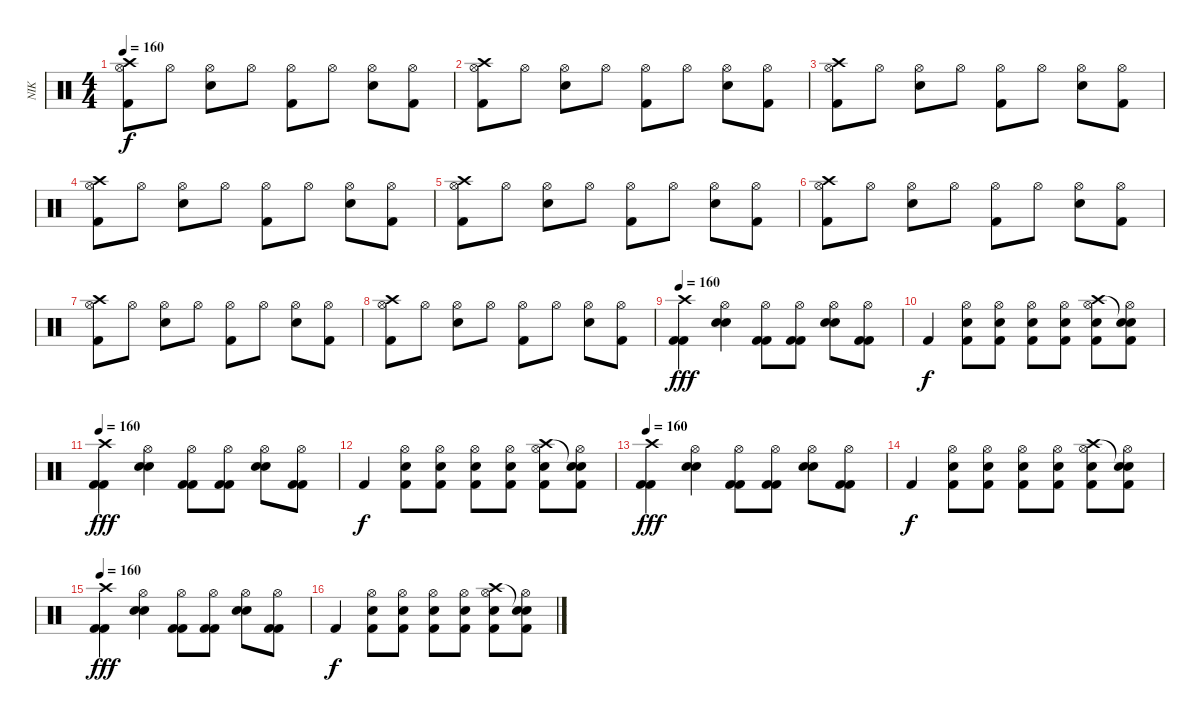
\track ("NIK" "NIK") {instrument percussion}
\staff {score}
\articulation defaults
\ts (4 4)
\tempo 160
\clef neutral
\ks c
("Crash high (hit)" "Hi-Hat (open)" "Kick (hit) 2").8{dy f} "Hi-Hat (open)".8 ("Hi-Hat (open)" "Electric Snare (hit)").8 "Hi-Hat (open)".8 ("Hi-Hat (open)" "Kick (hit) 2").8 "Hi-Hat (open)".8 ("Hi-Hat (open)" "Electric Snare (hit)").8 ("Hi-Hat (open)" "Kick (hit) 2").8 |
("Crash high (hit)" "Hi-Hat (open)" "Kick (hit) 2").8 "Hi-Hat (open)".8 ("Hi-Hat (open)" "Electric Snare (hit)").8 "Hi-Hat (open)".8 ("Hi-Hat (open)" "Kick (hit) 2").8 "Hi-Hat (open)".8 ("Hi-Hat (open)" "Electric Snare (hit)").8 ("Hi-Hat (open)" "Kick (hit) 2").8 |
("Crash high (hit)" "Hi-Hat (open)" "Kick (hit) 2").8 "Hi-Hat (open)".8 ("Hi-Hat (open)" "Electric Snare (hit)").8 "Hi-Hat (open)".8 ("Hi-Hat (open)" "Kick (hit) 2").8 "Hi-Hat (open)".8 ("Hi-Hat (open)" "Electric Snare (hit)").8 ("Hi-Hat (open)" "Kick (hit) 2").8 |
("Crash high (hit)" "Hi-Hat (open)" "Kick (hit) 2").8 "Hi-Hat (open)".8 ("Hi-Hat (open)" "Electric Snare (hit)").8 "Hi-Hat (open)".8 ("Hi-Hat (open)" "Kick (hit) 2").8 "Hi-Hat (open)".8 ("Hi-Hat (open)" "Electric Snare (hit)").8 ("Hi-Hat (open)" "Kick (hit) 2").8 |
("Crash high (hit)" "Hi-Hat (open)" "Kick (hit) 2").8 "Hi-Hat (open)".8 ("Hi-Hat (open)" "Electric Snare (hit)").8 "Hi-Hat (open)".8 ("Hi-Hat (open)" "Kick (hit) 2").8 "Hi-Hat (open)".8 ("Hi-Hat (open)" "Electric Snare (hit)").8 ("Hi-Hat (open)" "Kick (hit) 2").8 |
("Crash high (hit)" "Hi-Hat (open)" "Kick (hit) 2").8 "Hi-Hat (open)".8 ("Hi-Hat (open)" "Electric Snare (hit)").8 "Hi-Hat (open)".8 ("Hi-Hat (open)" "Kick (hit) 2").8 "Hi-Hat (open)".8 ("Hi-Hat (open)" "Electric Snare (hit)").8 ("Hi-Hat (open)" "Kick (hit) 2").8 |
("Crash high (hit)" "Hi-Hat (open)" "Kick (hit) 2").8 "Hi-Hat (open)".8 ("Hi-Hat (open)" "Electric Snare (hit)").8 "Hi-Hat (open)".8 ("Hi-Hat (open)" "Kick (hit) 2").8 "Hi-Hat (open)".8 ("Hi-Hat (open)" "Electric Snare (hit)").8 ("Hi-Hat (open)" "Kick (hit) 2").8 |
("Crash high (hit)" "Hi-Hat (open)" "Kick (hit) 2").8 "Hi-Hat (open)".8 ("Hi-Hat (open)" "Electric Snare (hit)").8 "Hi-Hat (open)".8 ("Hi-Hat (open)" "Kick (hit) 2").8 "Hi-Hat (open)".8 ("Hi-Hat (open)" "Electric Snare (hit)").8 ("Hi-Hat (open)" "Kick (hit) 2").8 |
\tempo 160
("Crash high (hit)" "Kick (hit) 2" "Kick (hit) 2").4{dy fff} ("Hi-Hat (open)" "Electric Snare (hit)" "Electric Snare (hit)").4 ("Hi-Hat (open)" "Kick (hit) 2" "Kick (hit) 2").8 ("Hi-Hat (open)" "Kick (hit) 2" "Kick (hit) 2").8 ("Hi-Hat (open)" "Electric Snare (hit)" "Electric Snare (hit)").8 ("Hi-Hat (open)" "Kick (hit) 2" "Kick (hit) 2").8 |
"Kick (hit) 2".4{dy f} ("Electric Snare (hit)" "Hi-Hat (open)" "Kick (hit) 2").8 ("Electric Snare (hit)" "Hi-Hat (open)" "Kick (hit) 2").8 ("Electric Snare (hit)" "Hi-Hat (open)" "Kick (hit) 2").8 ("Electric Snare (hit)" "Hi-Hat (open)" "Kick (hit) 2").8 ("Electric Snare (hit)" "Hi-Hat (open)" "Kick (hit) 2" "Crash high (hit)").8 ("Electric Snare (hit)" "Hi-Hat (open)" "Kick (hit) 2" "Snare (hit)"{t}).8 |
\tempo 160
("Crash high (hit)" "Kick (hit) 2" "Kick (hit) 2").4{dy fff} ("Hi-Hat (open)" "Electric Snare (hit)" "Electric Snare (hit)").4 ("Hi-Hat (open)" "Kick (hit) 2" "Kick (hit) 2").8 ("Hi-Hat (open)" "Kick (hit) 2" "Kick (hit) 2").8 ("Hi-Hat (open)" "Electric Snare (hit)" "Electric Snare (hit)").8 ("Hi-Hat (open)" "Kick (hit) 2" "Kick (hit) 2").8 |
"Kick (hit) 2".4{dy f} ("Electric Snare (hit)" "Hi-Hat (open)" "Kick (hit) 2").8 ("Electric Snare (hit)" "Hi-Hat (open)" "Kick (hit) 2").8 ("Electric Snare (hit)" "Hi-Hat (open)" "Kick (hit) 2").8 ("Electric Snare (hit)" "Hi-Hat (open)" "Kick (hit) 2").8 ("Electric Snare (hit)" "Hi-Hat (open)" "Kick (hit) 2" "Crash high (hit)").8 ("Electric Snare (hit)" "Hi-Hat (open)" "Kick (hit) 2" "Snare (hit)"{t}).8 |
\tempo 160
("Crash high (hit)" "Kick (hit) 2" "Kick (hit) 2").4{dy fff} ("Hi-Hat (open)" "Electric Snare (hit)" "Electric Snare (hit)").4 ("Hi-Hat (open)" "Kick (hit) 2" "Kick (hit) 2").8 ("Hi-Hat (open)" "Kick (hit) 2" "Kick (hit) 2").8 ("Hi-Hat (open)" "Electric Snare (hit)" "Electric Snare (hit)").8 ("Hi-Hat (open)" "Kick (hit) 2" "Kick (hit) 2").8 |
"Kick (hit) 2".4{dy f} ("Electric Snare (hit)" "Hi-Hat (open)" "Kick (hit) 2").8 ("Electric Snare (hit)" "Hi-Hat (open)" "Kick (hit) 2").8 ("Electric Snare (hit)" "Hi-Hat (open)" "Kick (hit) 2").8 ("Electric Snare (hit)" "Hi-Hat (open)" "Kick (hit) 2").8 ("Electric Snare (hit)" "Hi-Hat (open)" "Kick (hit) 2" "Crash high (hit)").8 ("Electric Snare (hit)" "Hi-Hat (open)" "Kick (hit) 2" "Snare (hit)"{t}).8 |
\tempo 160
("Crash high (hit)" "Kick (hit) 2" "Kick (hit) 2").4{dy fff} ("Hi-Hat (open)" "Electric Snare (hit)" "Electric Snare (hit)").4 ("Hi-Hat (open)" "Kick (hit) 2" "Kick (hit) 2").8 ("Hi-Hat (open)" "Kick (hit) 2" "Kick (hit) 2").8 ("Hi-Hat (open)" "Electric Snare (hit)" "Electric Snare (hit)").8 ("Hi-Hat (open)" "Kick (hit) 2" "Kick (hit) 2").8 |
"Kick (hit) 2".4{dy f} ("Electric Snare (hit)" "Hi-Hat (open)" "Kick (hit) 2").8 ("Electric Snare (hit)" "Hi-Hat (open)" "Kick (hit) 2").8 ("Electric Snare (hit)" "Hi-Hat (open)" "Kick (hit) 2").8 ("Electric Snare (hit)" "Hi-Hat (open)" "Kick (hit) 2").8 ("Electric Snare (hit)" "Hi-Hat (open)" "Kick (hit) 2" "Crash high (hit)").8 ("Electric Snare (hit)" "Hi-Hat (open)" "Kick (hit) 2" "Snare (hit)"{t}).8
